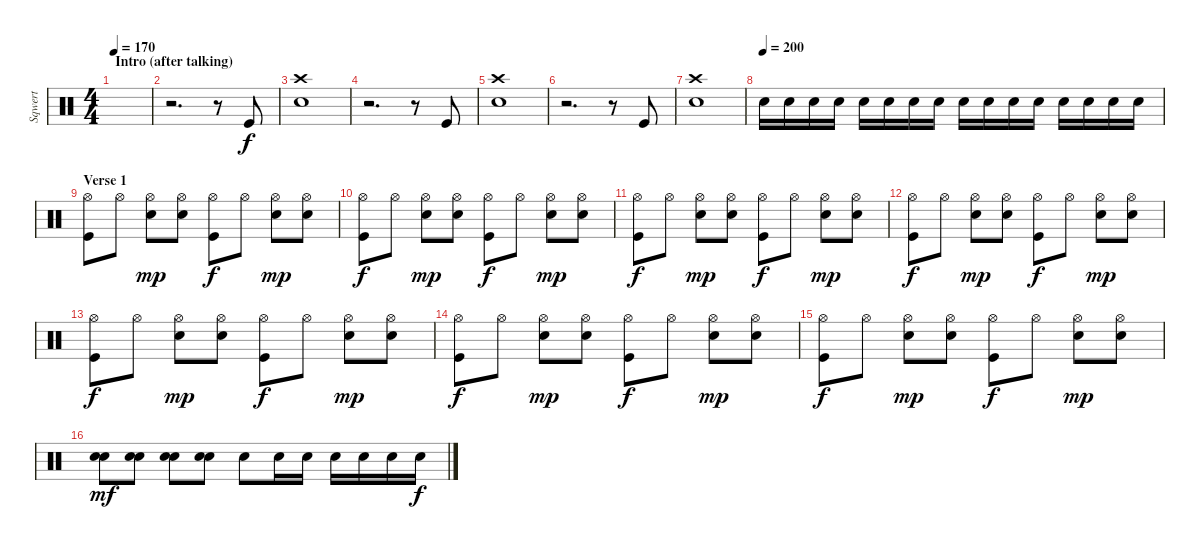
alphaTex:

\track ("Sqwert" "Sqwert") {instrument percussion}
\staff {score}
\articulation defaults
\ts (4 4)
\section ("" "Intro (after talking)")
\tempo 170
\clef neutral
\ks c
|
r.2{d} r.8 "Kick (hit)".8 |
("Crash high (hit)" "Snare (hit) 2").1 |
r.2{d} r.8 "Kick (hit)".8 |
("Crash high (hit)" "Snare (hit) 2").1 |
r.2{d} r.8 "Kick (hit)".8 |
("Crash high (hit)" "Snare (hit) 2").1 |
\tempo (200)
"Snare (hit) 2".16 "Snare (hit) 2".16 "Snare (hit) 2".16 "Snare (hit) 2".16 "Snare (hit) 2".16 "Snare (hit) 2".16 "Snare (hit) 2".16 "Snare (hit) 2".16 "Snare (hit) 2".16 "Snare (hit) 2".16 "Snare (hit) 2".16 "Snare (hit) 2".16 "Snare (hit) 2".16 "Snare (hit) 2".16 "Snare (hit) 2".16 "Snare (hit) 2".16 |
\section ("" "Verse 1")
("Hi-Hat (open)" "Kick (hit)").8 "Hi-Hat (open)".8 ("Hi-Hat (open)" "Snare (hit) 2").8{dy mp} ("Hi-Hat (open)" "Snare (hit) 2").8 ("Hi-Hat (open)" "Kick (hit)").8{dy f} "Hi-Hat (open)".8 ("Hi-Hat (open)" "Snare (hit) 2").8{dy mp} ("Hi-Hat (open)" "Snare (hit) 2").8 |
("Hi-Hat (open)" "Kick (hit)").8{dy f} "Hi-Hat (open)".8 ("Hi-Hat (open)" "Snare (hit) 2").8{dy mp} ("Hi-Hat (open)" "Snare (hit) 2").8 ("Hi-Hat (open)" "Kick (hit)").8{dy f} "Hi-Hat (open)".8 ("Hi-Hat (open)" "Snare (hit) 2").8{dy mp} ("Hi-Hat (open)" "Snare (hit) 2").8 |
("Hi-Hat (open)" "Kick (hit)").8{dy f} "Hi-Hat (open)".8 ("Hi-Hat (open)" "Snare (hit) 2").8{dy mp} ("Hi-Hat (open)" "Snare (hit) 2").8 ("Hi-Hat (open)" "Kick (hit)").8{dy f} "Hi-Hat (open)".8 ("Hi-Hat (open)" "Snare (hit) 2").8{dy mp} ("Hi-Hat (open)" "Snare (hit) 2").8 |
("Hi-Hat (open)" "Kick (hit)").8{dy f} "Hi-Hat (open)".8 ("Hi-Hat (open)" "Snare (hit) 2").8{dy mp} ("Hi-Hat (open)" "Snare (hit) 2").8 ("Hi-Hat (open)" "Kick (hit)").8{dy f} "Hi-Hat (open)".8 ("Hi-Hat (open)" "Snare (hit) 2").8{dy mp} ("Hi-Hat (open)" "Snare (hit) 2").8 |
("Hi-Hat (open)" "Kick (hit)").8{dy f} "Hi-Hat (open)".8 ("Hi-Hat (open)" "Snare (hit) 2").8{dy mp} ("Hi-Hat (open)" "Snare (hit) 2").8 ("Hi-Hat (open)" "Kick (hit)").8{dy f} "Hi-Hat (open)".8 ("Hi-Hat (open)" "Snare (hit) 2").8{dy mp} ("Hi-Hat (open)" "Snare (hit) 2").8 |
("Hi-Hat (open)" "Kick (hit)").8{dy f} "Hi-Hat (open)".8 ("Hi-Hat (open)" "Snare (hit) 2").8{dy mp} ("Hi-Hat (open)" "Snare (hit) 2").8 ("Hi-Hat (open)" "Kick (hit)").8{dy f} "Hi-Hat (open)".8 ("Hi-Hat (open)" "Snare (hit) 2").8{dy mp} ("Hi-Hat (open)" "Snare (hit) 2").8 |
("Hi-Hat (open)" "Kick (hit)").8{dy f} "Hi-Hat (open)".8 ("Hi-Hat (open)" "Snare (hit) 2").8{dy mp} ("Hi-Hat (open)" "Snare (hit) 2").8 ("Hi-Hat (open)" "Kick (hit)").8{dy f} "Hi-Hat (open)".8 ("Hi-Hat (open)" "Snare (hit) 2").8{dy mp} ("Hi-Hat (open)" "Snare (hit) 2").8 |
("Snare (hit) 2" "Snare (hit) 2").8{dy mf} ("Snare (hit) 2" "Snare (hit) 2").8 ("Snare (hit) 2" "Snare (hit) 2").8 ("Snare (hit) 2" "Snare (hit) 2").8 "Snare (hit) 2".8 "Snare (hit) 2".16 "Snare (hit) 2".16 "Snare (hit) 2".16 "Snare (hit) 2".16 "Snare (hit) 2".16 "Snare (hit) 2".16{dy f}
